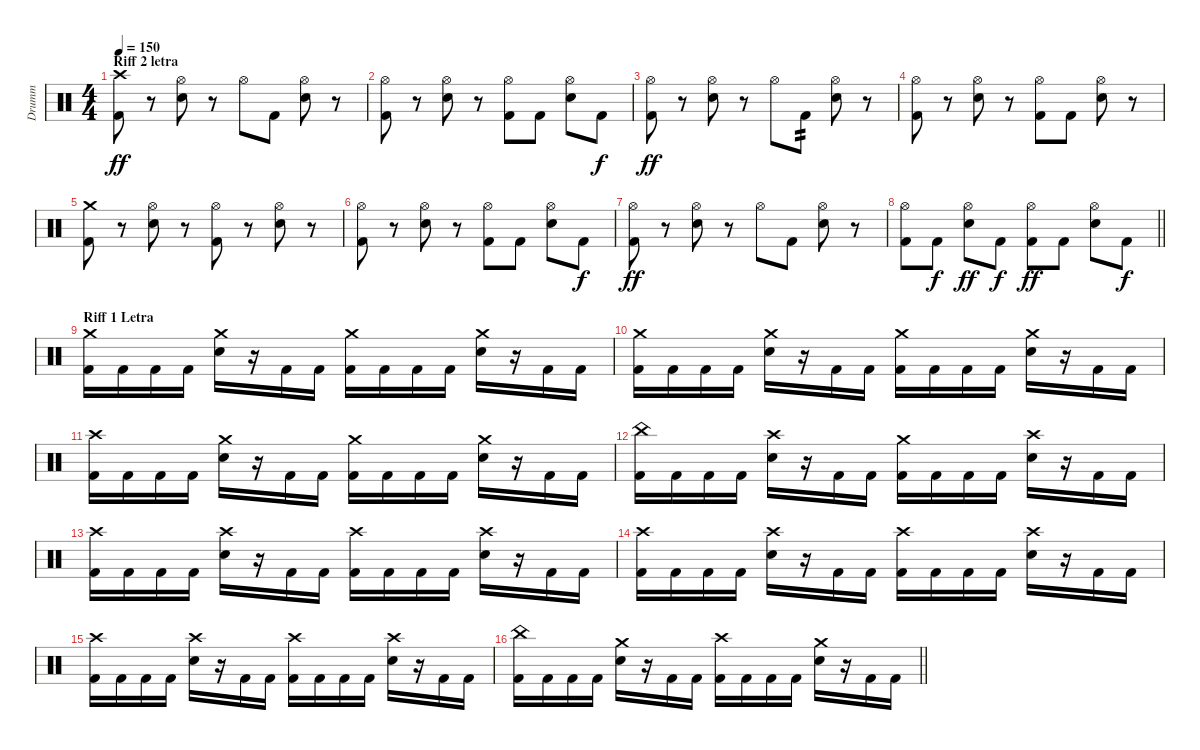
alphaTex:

\track ("Drumm" "Drumm") {instrument percussion}
\staff {score}
\articulation defaults
\ts (4 4)
\section ("" "Riff 2 letra")
\tempo 150
\clef neutral
\ks c
("Crash high (hit)" "Kick (hit) 2").8{dy ff} r.8 ("Hi-Hat (open)" "Snare (hit) 2").8 r.8 "Hi-Hat (open)".8 "Kick (hit) 2".8 ("Hi-Hat (open)" "Snare (hit) 2").8 r.8 |
("Hi-Hat (open)" "Kick (hit) 2").8 r.8 ("Hi-Hat (open)" "Snare (hit) 2").8 r.8 ("Hi-Hat (open)" "Kick (hit) 2").8 "Kick (hit) 2".8 ("Hi-Hat (open)" "Snare (hit) 2").8 "Kick (hit) 2".8{dy f} |
("Hi-Hat (open)" "Kick (hit) 2").8{dy ff} r.8 ("Hi-Hat (open)" "Snare (hit) 2").8 r.8 "Hi-Hat (open)".8 "Kick (hit) 2".8{tp 2} ("Hi-Hat (open)" "Snare (hit) 2").8 r.8 |
("Hi-Hat (open)" "Kick (hit) 2").8 r.8 ("Hi-Hat (open)" "Snare (hit) 2").8 r.8 ("Hi-Hat (open)" "Kick (hit) 2").8 "Kick (hit) 2".8 ("Hi-Hat (open)" "Snare (hit) 2").8 r.8 |
("Crash medium (hit)" "Kick (hit) 2").8 r.8 ("Hi-Hat (open)" "Snare (hit) 2").8 r.8 ("Hi-Hat (open)" "Kick (hit) 2").8 r.8 ("Hi-Hat (open)" "Snare (hit) 2").8 r.8 |
("Hi-Hat (open)" "Kick (hit) 2").8 r.8 ("Hi-Hat (open)" "Snare (hit) 2").8 r.8 ("Hi-Hat (open)" "Kick (hit) 2").8 "Kick (hit) 2".8 ("Hi-Hat (open)" "Snare (hit) 2").8 "Kick (hit) 2".8{dy f} |
("Hi-Hat (open)" "Kick (hit) 2").8{dy ff} r.8 ("Hi-Hat (open)" "Snare (hit) 2").8 r.8 "Hi-Hat (open)".8 "Kick (hit) 2".8 ("Hi-Hat (open)" "Snare (hit) 2").8 r.8 |
\barLineRight lightlight
("Hi-Hat (open)" "Kick (hit) 2").8 "Kick (hit) 2".8{dy f} ("Hi-Hat (open)" "Snare (hit) 2").8{dy ff} "Kick (hit) 2".8{dy f} ("Hi-Hat (open)" "Kick (hit) 2").8{dy ff} "Kick (hit) 2".8 ("Hi-Hat (open)" "Snare (hit) 2").8 "Kick (hit) 2".8{dy f} |
\section ("" "Riff 1 Letra")
("Crash medium (hit)" "Kick (hit) 2").16 "Kick (hit) 2".16 "Kick (hit) 2".16 "Kick (hit) 2".16 ("Crash medium (hit)" "Snare (hit) 2").16 r.16 "Kick (hit) 2".16 "Kick (hit) 2".16 ("Crash medium (hit)" "Kick (hit) 2").16 "Kick (hit) 2".16 "Kick (hit) 2".16 "Kick (hit) 2".16 ("Crash medium (hit)" "Snare (hit) 2").16 r.16 "Kick (hit) 2".16 "Kick (hit) 2".16 |
("Crash medium (hit)" "Kick (hit) 2").16 "Kick (hit) 2".16 "Kick (hit) 2".16 "Kick (hit) 2".16 ("Crash medium (hit)" "Snare (hit) 2").16 r.16 "Kick (hit) 2".16 "Kick (hit) 2".16 ("Crash medium (hit)" "Kick (hit) 2").16 "Kick (hit) 2".16 "Kick (hit) 2".16 "Kick (hit) 2".16 ("Crash medium (hit)" "Snare (hit) 2").16 r.16 "Kick (hit) 2".16 "Kick (hit) 2".16 |
("Crash high (hit)" "Kick (hit) 2").16 "Kick (hit) 2".16 "Kick (hit) 2".16 "Kick (hit) 2".16 ("Crash medium (hit)" "Snare (hit) 2").16 r.16 "Kick (hit) 2".16 "Kick (hit) 2".16 ("Crash medium (hit)" "Kick (hit) 2").16 "Kick (hit) 2".16 "Kick (hit) 2".16 "Kick (hit) 2".16 ("Crash medium (hit)" "Snare (hit) 2").16 r.16 "Kick (hit) 2".16 "Kick (hit) 2".16 |
("China (hit)" "Kick (hit) 2").16 "Kick (hit) 2".16 "Kick (hit) 2".16 "Kick (hit) 2".16 ("Crash high (hit)" "Snare (hit) 2").16 r.16 "Kick (hit) 2".16 "Kick (hit) 2".16 ("Crash medium (hit)" "Kick (hit) 2").16 "Kick (hit) 2".16 "Kick (hit) 2".16 "Kick (hit) 2".16 ("Crash high (hit)" "Snare (hit) 2").16 r.16 "Kick (hit) 2".16 "Kick (hit) 2".16 |
("Crash high (hit)" "Kick (hit) 2").16 "Kick (hit) 2".16 "Kick (hit) 2".16 "Kick (hit) 2".16 ("Crash high (hit)" "Snare (hit) 2").16 r.16 "Kick (hit) 2".16 "Kick (hit) 2".16 ("Crash high (hit)" "Kick (hit) 2").16 "Kick (hit) 2".16 "Kick (hit) 2".16 "Kick (hit) 2".16 ("Crash high (hit)" "Snare (hit) 2").16 r.16 "Kick (hit) 2".16 "Kick (hit) 2".16 |
("Crash high (hit)" "Kick (hit) 2").16 "Kick (hit) 2".16 "Kick (hit) 2".16 "Kick (hit) 2".16 ("Crash high (hit)" "Snare (hit) 2").16 r.16 "Kick (hit) 2".16 "Kick (hit) 2".16 ("Crash high (hit)" "Kick (hit) 2").16 "Kick (hit) 2".16 "Kick (hit) 2".16 "Kick (hit) 2".16 ("Crash high (hit)" "Snare (hit) 2").16 r.16 "Kick (hit) 2".16 "Kick (hit) 2".16 |
("Crash high (hit)" "Kick (hit) 2").16 "Kick (hit) 2".16 "Kick (hit) 2".16 "Kick (hit) 2".16 ("Crash high (hit)" "Snare (hit) 2").16 r.16 "Kick (hit) 2".16 "Kick (hit) 2".16 ("Crash high (hit)" "Kick (hit) 2").16 "Kick (hit) 2".16 "Kick (hit) 2".16 "Kick (hit) 2".16 ("Crash high (hit)" "Snare (hit) 2").16 r.16 "Kick (hit) 2".16 "Kick (hit) 2".16 |
\barLineRight lightlight
("China (hit)" "Kick (hit) 2").16 "Kick (hit) 2".16 "Kick (hit) 2".16 "Kick (hit) 2".16 ("Crash medium (hit)" "Snare (hit) 2").16 r.16 "Kick (hit) 2".16 "Kick (hit) 2".16 ("Crash high (hit)" "Kick (hit) 2").16 "Kick (hit) 2".16 "Kick (hit) 2".16 "Kick (hit) 2".16 ("Crash medium (hit)" "Snare (hit) 2").16 r.16 "Kick (hit) 2".16 "Kick (hit) 2".16
